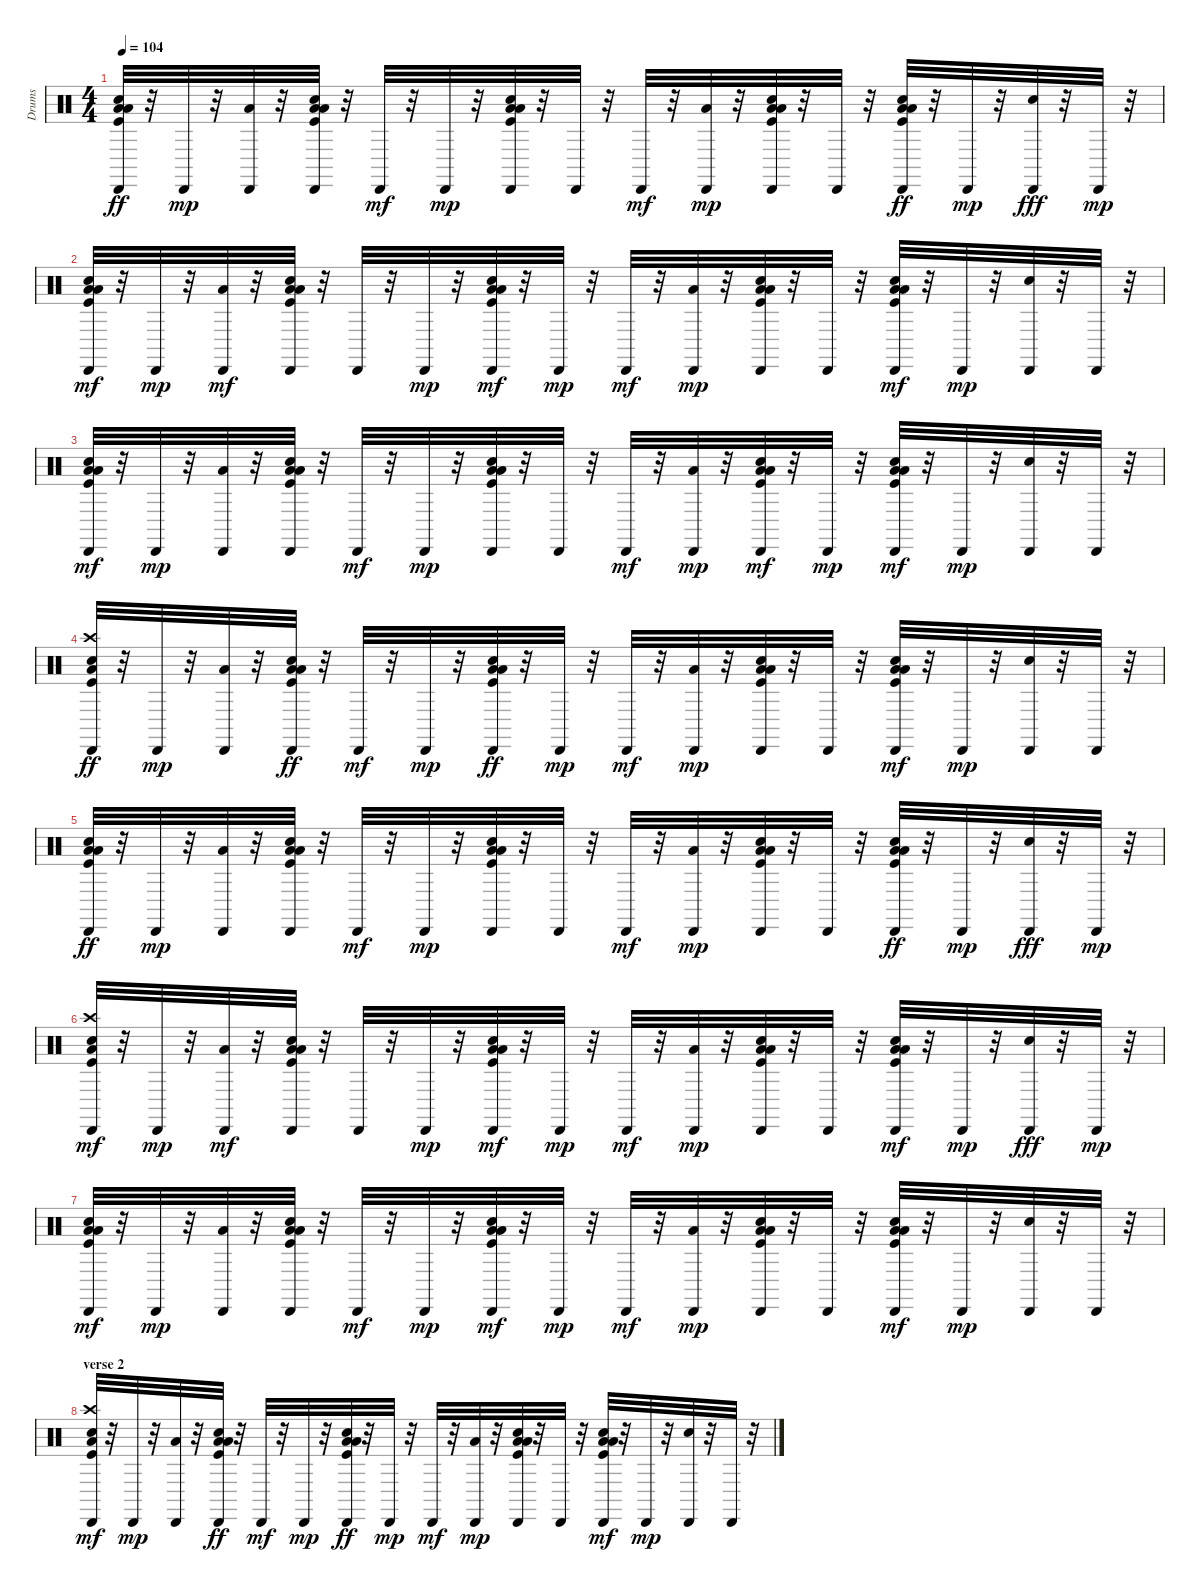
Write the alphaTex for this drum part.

\track ("Drums" "Drums") {instrument percussion}
\staff {score}
\articulation defaults
\ts (4 4)
\tempo 104
\clef neutral
\ks c
("Low Floor Tom (hit)" "Kick (hit)" "Hand Clap (hit)" "Cabasa (hit)" "Low Tom (hit)").32{dy ff} r.32 "Cabasa (hit)".32{dy mp} r.32 ("Low Tom (hit)" "Cabasa (hit)").32 r.32 ("Low Tom (hit)" "Kick (hit)" "Cabasa (hit)" "Low Floor Tom (hit)" "Hand Clap (hit)").32 r.32 "Cabasa (hit)".32{dy mf} r.32 "Cabasa (hit)".32{dy mp} r.32 ("Low Tom (hit)" "Low Floor Tom (hit)" "Kick (hit)" "Cabasa (hit)" "Hand Clap (hit)").32 r.32 "Cabasa (hit)".32 r.32 "Cabasa (hit)".32{dy mf} r.32 ("Low Tom (hit)" "Cabasa (hit)").32{dy mp} r.32 ("Low Tom (hit)" "Hand Clap (hit)" "Low Floor Tom (hit)" "Kick (hit)" "Cabasa (hit)").32 r.32 "Cabasa (hit)".32 r.32 ("Low Tom (hit)" "Kick (hit)" "Cabasa (hit)" "Low Floor Tom (hit)" "Hand Clap (hit)").32{dy ff} r.32 "Cabasa (hit)".32{dy mp} r.32 ("Cabasa (hit)" "Snare (hit) 2").32{dy fff} r.32 "Cabasa (hit)".32{dy mp} r.32 |
("Low Floor Tom (hit)" "Cabasa (hit)" "Low Tom (hit)" "Kick (hit)" "Hand Clap (hit)").32{dy mf} r.32 "Cabasa (hit)".32{dy mp} r.32 ("Cabasa (hit)" "Low Tom (hit)").32{dy mf} r.32 ("Cabasa (hit)" "Low Tom (hit)" "Low Floor Tom (hit)" "Kick (hit)" "Hand Clap (hit)").32 r.32 "Cabasa (hit)".32 r.32 "Cabasa (hit)".32{dy mp} r.32 ("Low Tom (hit)" "Low Floor Tom (hit)" "Hand Clap (hit)" "Cabasa (hit)" "Kick (hit)").32{dy mf} r.32 "Cabasa (hit)".32{dy mp} r.32 "Cabasa (hit)".32{dy mf} r.32 ("Cabasa (hit)" "Low Tom (hit)").32{dy mp} r.32 ("Hand Clap (hit)" "Low Tom (hit)" "Low Floor Tom (hit)" "Kick (hit)" "Cabasa (hit)").32 r.32 "Cabasa (hit)".32 r.32 ("Kick (hit)" "Low Tom (hit)" "Low Floor Tom (hit)" "Hand Clap (hit)" "Cabasa (hit)").32{dy mf} r.32 "Cabasa (hit)".32{dy mp} r.32 ("Snare (hit) 2" "Cabasa (hit)").32 r.32 "Cabasa (hit)".32 r.32 |
("Low Floor Tom (hit)" "Hand Clap (hit)" "Kick (hit)" "Low Tom (hit)" "Cabasa (hit)").32{dy mf} r.32 "Cabasa (hit)".32{dy mp} r.32 ("Cabasa (hit)" "Low Tom (hit)").32 r.32 ("Kick (hit)" "Cabasa (hit)" "Hand Clap (hit)" "Low Floor Tom (hit)" "Low Tom (hit)").32 r.32 "Cabasa (hit)".32{dy mf} r.32 "Cabasa (hit)".32{dy mp} r.32 ("Low Floor Tom (hit)" "Low Tom (hit)" "Kick (hit)" "Hand Clap (hit)" "Cabasa (hit)").32 r.32 "Cabasa (hit)".32 r.32 "Cabasa (hit)".32{dy mf} r.32 ("Cabasa (hit)" "Low Tom (hit)").32{dy mp} r.32 ("Hand Clap (hit)" "Low Floor Tom (hit)" "Low Tom (hit)" "Kick (hit)" "Cabasa (hit)").32{dy mf} r.32 "Cabasa (hit)".32{dy mp} r.32 ("Low Floor Tom (hit)" "Low Tom (hit)" "Kick (hit)" "Hand Clap (hit)" "Cabasa (hit)").32{dy mf} r.32 "Cabasa (hit)".32{dy mp} r.32 ("Snare (hit) 2" "Cabasa (hit)").32 r.32 "Cabasa (hit)".32 r.32 |
("Cabasa (hit)" "Crash high (hit)" "Low Floor Tom (hit)" "Kick (hit)" "Hand Clap (hit)").32{dy ff} r.32 "Cabasa (hit)".32{dy mp} r.32 ("Low Tom (hit)" "Cabasa (hit)").32 r.32 ("Low Tom (hit)" "Kick (hit)" "Hand Clap (hit)" "Cabasa (hit)" "Low Floor Tom (hit)").32{dy ff} r.32 "Cabasa (hit)".32{dy mf} r.32 "Cabasa (hit)".32{dy mp} r.32 ("Low Tom (hit)" "Kick (hit)" "Hand Clap (hit)" "Cabasa (hit)" "Low Floor Tom (hit)").32{dy ff} r.32 "Cabasa (hit)".32{dy mp} r.32 "Cabasa (hit)".32{dy mf} r.32 ("Low Tom (hit)" "Cabasa (hit)").32{dy mp} r.32 ("Hand Clap (hit)" "Low Tom (hit)" "Low Floor Tom (hit)" "Kick (hit)" "Cabasa (hit)").32 r.32 "Cabasa (hit)".32 r.32 ("Low Floor Tom (hit)" "Low Tom (hit)" "Kick (hit)" "Hand Clap (hit)" "Cabasa (hit)").32{dy mf} r.32 "Cabasa (hit)".32{dy mp} r.32 ("Snare (hit) 2" "Cabasa (hit)").32 r.32 "Cabasa (hit)".32 r.32 |
("Low Floor Tom (hit)" "Kick (hit)" "Hand Clap (hit)" "Cabasa (hit)" "Low Tom (hit)").32{dy ff} r.32 "Cabasa (hit)".32{dy mp} r.32 ("Low Tom (hit)" "Cabasa (hit)").32 r.32 ("Low Tom (hit)" "Kick (hit)" "Cabasa (hit)" "Low Floor Tom (hit)" "Hand Clap (hit)").32 r.32 "Cabasa (hit)".32{dy mf} r.32 "Cabasa (hit)".32{dy mp} r.32 ("Low Tom (hit)" "Low Floor Tom (hit)" "Kick (hit)" "Hand Clap (hit)" "Cabasa (hit)").32 r.32 "Cabasa (hit)".32 r.32 "Cabasa (hit)".32{dy mf} r.32 ("Low Tom (hit)" "Cabasa (hit)").32{dy mp} r.32 ("Low Tom (hit)" "Low Floor Tom (hit)" "Kick (hit)" "Hand Clap (hit)" "Cabasa (hit)").32 r.32 "Cabasa (hit)".32 r.32 ("Low Tom (hit)" "Kick (hit)" "Cabasa (hit)" "Hand Clap (hit)" "Low Floor Tom (hit)").32{dy ff} r.32 "Cabasa (hit)".32{dy mp} r.32 ("Cabasa (hit)" "Snare (hit) 2").32{dy fff} r.32 "Cabasa (hit)".32{dy mp} r.32 |
("Crash high (hit)" "Low Floor Tom (hit)" "Cabasa (hit)" "Hand Clap (hit)" "Kick (hit)").32{dy mf} r.32 "Cabasa (hit)".32{dy mp} r.32 ("Cabasa (hit)" "Low Tom (hit)").32{dy mf} r.32 ("Cabasa (hit)" "Low Tom (hit)" "Low Floor Tom (hit)" "Kick (hit)" "Hand Clap (hit)").32 r.32 "Cabasa (hit)".32 r.32 "Cabasa (hit)".32{dy mp} r.32 ("Low Tom (hit)" "Low Floor Tom (hit)" "Hand Clap (hit)" "Kick (hit)" "Cabasa (hit)").32{dy mf} r.32 "Cabasa (hit)".32{dy mp} r.32 "Cabasa (hit)".32{dy mf} r.32 ("Cabasa (hit)" "Low Tom (hit)").32{dy mp} r.32 ("Low Tom (hit)" "Low Floor Tom (hit)" "Kick (hit)" "Hand Clap (hit)" "Cabasa (hit)").32 r.32 "Cabasa (hit)".32 r.32 ("Kick (hit)" "Hand Clap (hit)" "Low Tom (hit)" "Cabasa (hit)" "Low Floor Tom (hit)").32{dy mf} r.32 "Cabasa (hit)".32{dy mp} r.32 ("Cabasa (hit)" "Snare (hit) 2").32{dy fff} r.32 "Cabasa (hit)".32{dy mp} r.32 |
("Low Floor Tom (hit)" "Hand Clap (hit)" "Kick (hit)" "Cabasa (hit)" "Low Tom (hit)").32{dy mf} r.32 "Cabasa (hit)".32{dy mp} r.32 ("Cabasa (hit)" "Low Tom (hit)").32 r.32 ("Kick (hit)" "Low Floor Tom (hit)" "Low Tom (hit)" "Cabasa (hit)" "Hand Clap (hit)").32 r.32 "Cabasa (hit)".32{dy mf} r.32 "Cabasa (hit)".32{dy mp} r.32 ("Low Floor Tom (hit)" "Low Tom (hit)" "Kick (hit)" "Hand Clap (hit)" "Cabasa (hit)").32{dy mf} r.32 "Cabasa (hit)".32{dy mp} r.32 "Cabasa (hit)".32{dy mf} r.32 ("Cabasa (hit)" "Low Tom (hit)").32{dy mp} r.32 ("Low Floor Tom (hit)" "Low Tom (hit)" "Kick (hit)" "Hand Clap (hit)" "Cabasa (hit)").32 r.32 "Cabasa (hit)".32 r.32 ("Low Floor Tom (hit)" "Low Tom (hit)" "Kick (hit)" "Hand Clap (hit)" "Cabasa (hit)").32{dy mf} r.32 "Cabasa (hit)".32{dy mp} r.32 ("Snare (hit) 2" "Cabasa (hit)").32 r.32 "Cabasa (hit)".32 r.32 |
\section ("" "verse 2")
("Crash high (hit)" "Hand Clap (hit)" "Cabasa (hit)" "Low Floor Tom (hit)" "Kick (hit)").32{dy mf} r.32 "Cabasa (hit)".32{dy mp} r.32 ("Low Tom (hit)" "Cabasa (hit)").32 r.32 ("Low Tom (hit)" "Kick (hit)" "Hand Clap (hit)" "Cabasa (hit)" "Low Floor Tom (hit)").32{dy ff} r.32 "Cabasa (hit)".32{dy mf} r.32 "Cabasa (hit)".32{dy mp} r.32 ("Low Tom (hit)" "Kick (hit)" "Hand Clap (hit)" "Cabasa (hit)" "Low Floor Tom (hit)").32{dy ff} r.32 "Cabasa (hit)".32{dy mp} r.32 "Cabasa (hit)".32{dy mf} r.32 ("Low Tom (hit)" "Cabasa (hit)").32{dy mp} r.32 ("Hand Clap (hit)" "Low Tom (hit)" "Low Floor Tom (hit)" "Kick (hit)" "Cabasa (hit)").32 r.32 "Cabasa (hit)".32 r.32 ("Cabasa (hit)" "Low Floor Tom (hit)" "Low Tom (hit)" "Kick (hit)" "Hand Clap (hit)").32{dy mf} r.32 "Cabasa (hit)".32{dy mp} r.32 ("Snare (hit) 2" "Cabasa (hit)").32 r.32 "Cabasa (hit)".32 r.32
